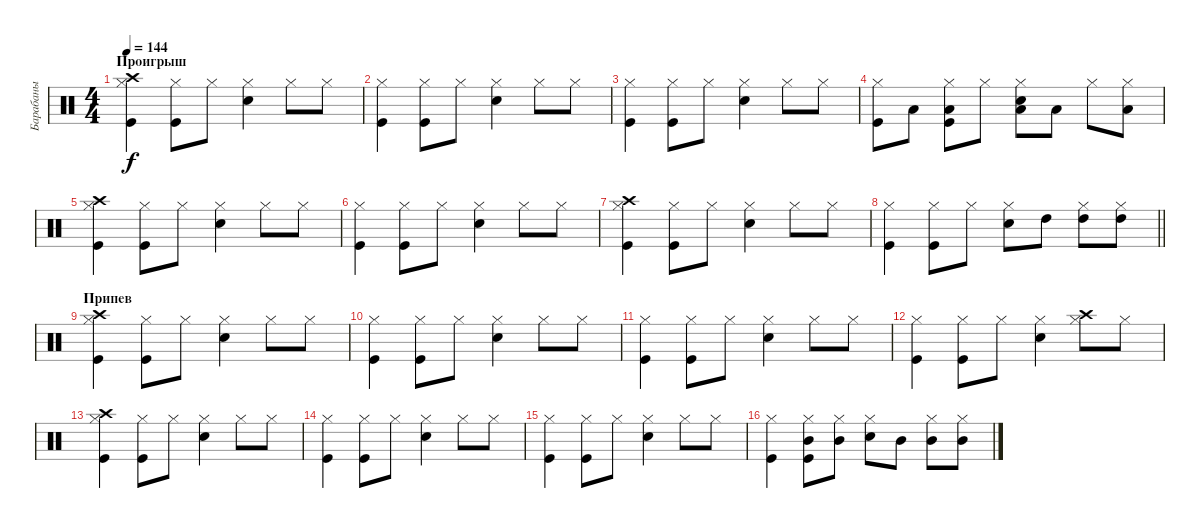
\track ("Барабаны" "Барабаны") {instrument percussion}
\staff {score}
\articulation defaults
\ts (4 4)
\section ("" "Проигрыш")
\tempo 144
\clef neutral
\ks c
("Kick (hit)" "Hi-Hat (closed)" "Crash high (hit)").4{dy f} ("Kick (hit)" "Hi-Hat (closed)").8 "Hi-Hat (closed)".8 ("Snare (hit) 2" "Hi-Hat (closed)").4 "Hi-Hat (closed)".8 "Hi-Hat (closed)".8 |
("Kick (hit)" "Hi-Hat (closed)").4 ("Kick (hit)" "Hi-Hat (closed)").8 "Hi-Hat (closed)".8 ("Snare (hit) 2" "Hi-Hat (closed)").4 "Hi-Hat (closed)".8 "Hi-Hat (closed)".8 |
("Kick (hit)" "Hi-Hat (closed)").4 ("Kick (hit)" "Hi-Hat (closed)").8 "Hi-Hat (closed)".8 ("Snare (hit) 2" "Hi-Hat (closed)").4 "Hi-Hat (closed)".8 "Hi-Hat (closed)".8 |
("Kick (hit)" "Hi-Hat (closed)").8 "Low Tom (hit)".8 ("Kick (hit)" "Hi-Hat (closed)" "Low Tom (hit)").8 "Hi-Hat (closed)".8 ("Snare (hit) 2" "Hi-Hat (closed)" "Low Tom (hit)").8 "Low Tom (hit)".8 "Hi-Hat (closed)".8 ("Hi-Hat (closed)" "Low Tom (hit)").8 |
("Kick (hit)" "Hi-Hat (closed)" "Crash high (hit)").4 ("Kick (hit)" "Hi-Hat (closed)").8 "Hi-Hat (closed)".8 ("Snare (hit) 2" "Hi-Hat (closed)").4 "Hi-Hat (closed)".8 "Hi-Hat (closed)".8 |
("Kick (hit)" "Hi-Hat (closed)").4 ("Kick (hit)" "Hi-Hat (closed)").8 "Hi-Hat (closed)".8 ("Snare (hit) 2" "Hi-Hat (closed)").4 "Hi-Hat (closed)".8 "Hi-Hat (closed)".8 |
("Kick (hit)" "Hi-Hat (closed)" "Crash high (hit)").4 ("Kick (hit)" "Hi-Hat (closed)").8 "Hi-Hat (closed)".8 ("Snare (hit) 2" "Hi-Hat (closed)").4 "Hi-Hat (closed)".8 "Hi-Hat (closed)".8 |
\barLineRight lightlight
("Kick (hit)" "Hi-Hat (closed)").4 ("Kick (hit)" "Hi-Hat (closed)").8 "Hi-Hat (closed)".8 ("Snare (hit) 2" "Hi-Hat (closed)").8 "High Tom (hit)".8 ("Hi-Hat (closed)" "High Tom (hit)").8 ("Hi-Hat (closed)" "High Tom (hit)").8 |
\section ("" "Припев")
("Kick (hit)" "Hi-Hat (closed)" "Crash high (hit)").4 ("Kick (hit)" "Hi-Hat (closed)").8 "Hi-Hat (closed)".8 ("Snare (hit) 2" "Hi-Hat (closed)").4 "Hi-Hat (closed)".8 "Hi-Hat (closed)".8 |
("Kick (hit)" "Hi-Hat (closed)").4 ("Kick (hit)" "Hi-Hat (closed)").8 "Hi-Hat (closed)".8 ("Snare (hit) 2" "Hi-Hat (closed)").4 "Hi-Hat (closed)".8 "Hi-Hat (closed)".8 |
("Kick (hit)" "Hi-Hat (closed)").4 ("Kick (hit)" "Hi-Hat (closed)").8 "Hi-Hat (closed)".8 ("Snare (hit) 2" "Hi-Hat (closed)").4 "Hi-Hat (closed)".8 "Hi-Hat (closed)".8 |
("Kick (hit)" "Hi-Hat (closed)").4 ("Kick (hit)" "Hi-Hat (closed)").8 "Hi-Hat (closed)".8 ("Snare (hit) 2" "Hi-Hat (closed)").4 ("Hi-Hat (closed)" "Crash high (hit)").8 "Hi-Hat (closed)".8 |
("Kick (hit)" "Hi-Hat (closed)" "Crash high (hit)").4 ("Kick (hit)" "Hi-Hat (closed)").8 "Hi-Hat (closed)".8 ("Snare (hit) 2" "Hi-Hat (closed)").4 "Hi-Hat (closed)".8 "Hi-Hat (closed)".8 |
("Kick (hit)" "Hi-Hat (closed)").4 ("Kick (hit)" "Hi-Hat (closed)").8 "Hi-Hat (closed)".8 ("Snare (hit) 2" "Hi-Hat (closed)").4 "Hi-Hat (closed)".8 "Hi-Hat (closed)".8 |
("Kick (hit)" "Hi-Hat (closed)").4 ("Kick (hit)" "Hi-Hat (closed)").8 "Hi-Hat (closed)".8 ("Snare (hit) 2" "Hi-Hat (closed)").4 "Hi-Hat (closed)".8 "Hi-Hat (closed)".8 |
("Kick (hit)" "Hi-Hat (closed)").4 ("Kick (hit)" "Hi-Hat (closed)" "Mid Tom (hit)").8 ("Hi-Hat (closed)" "Mid Tom (hit)").8 ("Snare (hit) 2" "Hi-Hat (closed)").8 "Mid Tom (hit)".8 ("Hi-Hat (closed)" "Mid Tom (hit)").8 ("Hi-Hat (closed)" "Mid Tom (hit)").8
